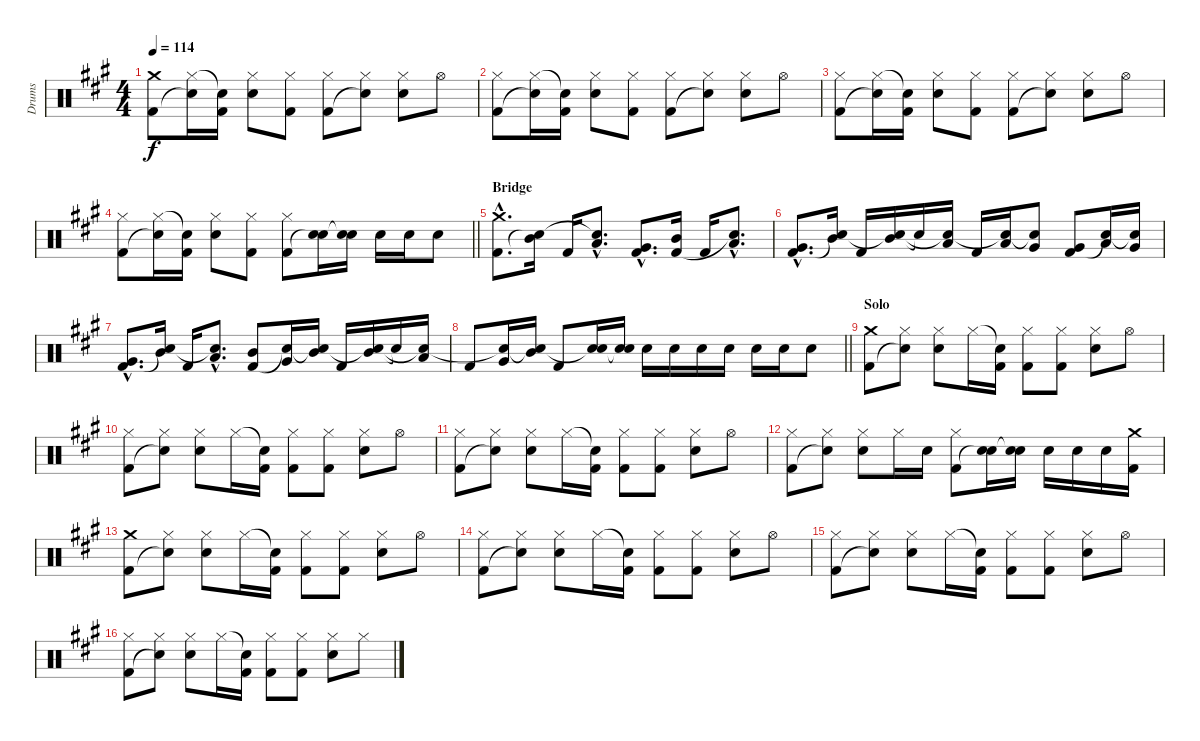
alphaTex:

\track ("Drums" "Drums") {instrument percussion}
\staff {score}
\articulation defaults
\ts (4 4)
\tempo 114
\clef neutral
\ks a
("Crash medium (hit)" "Kick (hit) 2").8{dy f} ("Hi-Hat (closed)" "Snare (hit)"{t}).16 ("Snare (hit)"{t} "Kick (hit) 2").16 ("Hi-Hat (closed)" "Electric Snare (hit)").8 ("Hi-Hat (closed)" "Kick (hit) 2").8 ("Hi-Hat (closed)" "Kick (hit) 2").8 ("Hi-Hat (closed)" "Snare (hit)"{t}).8 ("Hi-Hat (closed)" "Electric Snare (hit)").8 "Hi-Hat (open)".8 |
("Hi-Hat (closed)" "Kick (hit) 2").8 ("Hi-Hat (closed)" "Snare (hit)"{t}).16 ("Snare (hit)"{t} "Kick (hit) 2").16 ("Hi-Hat (closed)" "Electric Snare (hit)").8 ("Hi-Hat (closed)" "Kick (hit) 2").8 ("Hi-Hat (closed)" "Kick (hit) 2").8 ("Hi-Hat (closed)" "Snare (hit)"{t}).8 ("Hi-Hat (closed)" "Electric Snare (hit)").8 "Hi-Hat (open)".8 |
("Hi-Hat (closed)" "Kick (hit) 2").8 ("Hi-Hat (closed)" "Snare (hit)"{t}).16 ("Snare (hit)"{t} "Kick (hit) 2").16 ("Hi-Hat (closed)" "Electric Snare (hit)").8 ("Hi-Hat (closed)" "Kick (hit) 2").8 ("Hi-Hat (closed)" "Kick (hit) 2").8 ("Hi-Hat (closed)" "Snare (hit)"{t}).8 ("Hi-Hat (closed)" "Electric Snare (hit)").8 "Hi-Hat (open)".8 |
\barLineRight lightlight
("Hi-Hat (closed)" "Kick (hit) 2").8 ("Hi-Hat (closed)" "Snare (hit)"{t}).16 ("Snare (hit)"{t} "Kick (hit) 2").16 ("Hi-Hat (closed)" "Electric Snare (hit)").8 ("Hi-Hat (closed)" "Kick (hit) 2").8 ("Hi-Hat (closed)" "Kick (hit) 2").8 ("Electric Snare (hit)" "Snare (hit)"{t}).16 ("Electric Snare (hit)" "Snare (hit)"{t}).16 "Electric Snare (hit)".16 "Electric Snare (hit)".16 "Electric Snare (hit)".8 |
\section ("" "Bridge")
("Crash medium (hit)"{hac} "Kick (hit) 2"{hac}).8{d} ("Mid Tom (hit)" "Snare (hit)"{t}).16 "Kick (hit) 2".16 ("Low Tom (hit)"{hac} "Snare (hit)"{hac t}).8{d} ("Very Low Tom (hit)"{hac} "Kick (hit) 2"{hac}).8{d} ("Mid Tom (hit)" "Kick (hit) 2").16 "Kick (hit) 2".16 ("Low Tom (hit)"{hac} "Snare (hit)"{hac t}).8{d} |
("Very Low Tom (hit)"{hac} "Kick (hit) 2"{hac}).8{d} ("Mid Tom (hit)" "Snare (hit)"{t}).16 "Kick (hit) 2".16 ("Mid Tom (hit)" "Snare (hit)"{t}).16 "Snare (hit)"{t}.16 ("Low Tom (hit)" "Snare (hit)"{t}).16 "Kick (hit) 2".16 ("Low Tom (hit)" "Snare (hit)"{t}).16 ("Very Low Tom (hit)" "Snare (hit)"{t}).8 ("Very Low Tom (hit)" "Kick (hit) 2").8 ("Low Tom (hit)" "Snare (hit)"{t}).16 ("Very Low Tom (hit)" "Snare (hit)"{t}).16 |
("Very Low Tom (hit)"{hac} "Kick (hit) 2"{hac}).8{d} ("Mid Tom (hit)" "Snare (hit)"{t}).16 "Kick (hit) 2".16 ("Low Tom (hit)"{hac} "Snare (hit)"{hac t}).8{d} ("Mid Tom (hit)" "Kick (hit) 2").8 ("Very Low Tom (hit)" "Snare (hit)"{t}).16 ("Mid Tom (hit)" "Snare (hit)"{t}).16 "Kick (hit) 2".16 ("Mid Tom (hit)" "Snare (hit)"{t}).16 "Snare (hit)"{t}.16 ("Low Tom (hit)" "Snare (hit)"{t}).16 |
\barLineRight lightlight "Kick (hit) 2".8
("Very Low Tom (hit)" "Snare (hit)"{t}).16 ("Mid Tom (hit)" "Snare (hit)"{t}).16 "Kick (hit) 2".8 ("Electric Snare (hit)" "Snare (hit)"{t}).16 ("Electric Snare (hit)" "Snare (hit)"{t}).16 "Electric Snare (hit)".16 "Electric Snare (hit)".16 "Electric Snare (hit)".16 "Electric Snare (hit)".16 "Electric Snare (hit)".16 "Electric Snare (hit)".16 "Electric Snare (hit)".8 |
\section ("" "Solo")
("Crash medium (hit)" "Kick (hit) 2").8 ("Hi-Hat (closed)" "Snare (hit)"{t}).8 ("Hi-Hat (closed)" "Electric Snare (hit)").8 "Hi-Hat (closed)".16 ("Snare (hit)"{t} "Kick (hit) 2").16 ("Hi-Hat (closed)" "Kick (hit) 2").8 ("Hi-Hat (closed)" "Kick (hit) 2").8 ("Hi-Hat (closed)" "Electric Snare (hit)").8 "Hi-Hat (open)".8 |
("Hi-Hat (closed)" "Kick (hit) 2").8 ("Hi-Hat (closed)" "Snare (hit)"{t}).8 ("Hi-Hat (closed)" "Electric Snare (hit)").8 "Hi-Hat (closed)".16 ("Snare (hit)"{t} "Kick (hit) 2").16 ("Hi-Hat (closed)" "Kick (hit) 2").8 ("Hi-Hat (closed)" "Kick (hit) 2").8 ("Hi-Hat (closed)" "Electric Snare (hit)").8 "Hi-Hat (open)".8 |
("Hi-Hat (closed)" "Kick (hit) 2").8 ("Hi-Hat (closed)" "Snare (hit)"{t}).8 ("Hi-Hat (closed)" "Electric Snare (hit)").8 "Hi-Hat (closed)".16 ("Snare (hit)"{t} "Kick (hit) 2").16 ("Hi-Hat (closed)" "Kick (hit) 2").8 ("Hi-Hat (closed)" "Kick (hit) 2").8 ("Hi-Hat (closed)" "Electric Snare (hit)").8 "Hi-Hat (open)".8 |
("Hi-Hat (closed)" "Kick (hit) 2").8 ("Hi-Hat (closed)" "Snare (hit)"{t}).8 ("Hi-Hat (closed)" "Electric Snare (hit)").8 "Hi-Hat (closed)".16 "Electric Snare (hit)".16 ("Hi-Hat (closed)" "Kick (hit) 2").8 ("Electric Snare (hit)" "Snare (hit)"{t}).16 ("Electric Snare (hit)" "Snare (hit)"{t}).16 "Electric Snare (hit)".16 "Electric Snare (hit)".16 "Electric Snare (hit)".16 ("Crash medium (hit)" "Kick (hit) 2").16 |
("Crash medium (hit)" "Kick (hit) 2").8 ("Hi-Hat (closed)" "Snare (hit)"{t}).8 ("Hi-Hat (closed)" "Electric Snare (hit)").8 "Hi-Hat (closed)".16 ("Snare (hit)"{t} "Kick (hit) 2").16 ("Hi-Hat (closed)" "Kick (hit) 2").8 ("Hi-Hat (closed)" "Kick (hit) 2").8 ("Hi-Hat (closed)" "Electric Snare (hit)").8 "Hi-Hat (open)".8 |
("Hi-Hat (closed)" "Kick (hit) 2").8 ("Hi-Hat (closed)" "Snare (hit)"{t}).8 ("Hi-Hat (closed)" "Electric Snare (hit)").8 "Hi-Hat (closed)".16 ("Snare (hit)"{t} "Kick (hit) 2").16 ("Hi-Hat (closed)" "Kick (hit) 2").8 ("Hi-Hat (closed)" "Kick (hit) 2").8 ("Hi-Hat (closed)" "Electric Snare (hit)").8 "Hi-Hat (open)".8 |
("Hi-Hat (closed)" "Kick (hit) 2").8 ("Hi-Hat (closed)" "Snare (hit)"{t}).8 ("Hi-Hat (closed)" "Electric Snare (hit)").8 "Hi-Hat (closed)".16 ("Snare (hit)"{t} "Kick (hit) 2").16 ("Hi-Hat (closed)" "Kick (hit) 2").8 ("Hi-Hat (closed)" "Kick (hit) 2").8 ("Hi-Hat (closed)" "Electric Snare (hit)").8 "Hi-Hat (open)".8 |
("Hi-Hat (closed)" "Kick (hit) 2").8 ("Hi-Hat (closed)" "Snare (hit)"{t}).8 ("Hi-Hat (closed)" "Electric Snare (hit)").8 "Hi-Hat (closed)".16 ("Snare (hit)"{t} "Kick (hit) 2").16 ("Hi-Hat (closed)" "Kick (hit) 2").8 ("Hi-Hat (closed)" "Kick (hit) 2").8 ("Hi-Hat (closed)" "Electric Snare (hit)").8 "Hi-Hat (closed)".8
